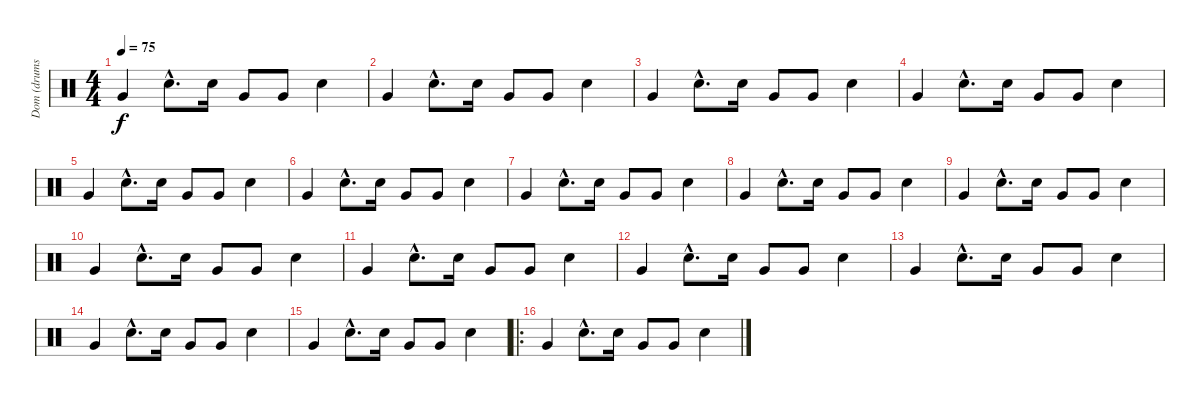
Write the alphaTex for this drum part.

\track ("Dom (drums)" "Dom (drums") {instrument percussion}
\staff {score}
\articulation defaults
\ts (4 4)
\tempo 75
\clef neutral
\ks c "Very Low Tom (hit)".4{dy f} "Snare (hit) 2"{hac}.8{d} "Snare (hit) 2".16 "Very Low Tom (hit)".8 "Very Low Tom (hit)".8 "Snare (hit) 2".4
|
"Very Low Tom (hit)".4 "Snare (hit) 2"{hac}.8{d} "Snare (hit) 2".16 "Very Low Tom (hit)".8 "Very Low Tom (hit)".8 "Snare (hit) 2".4 |
"Very Low Tom (hit)".4 "Snare (hit) 2"{hac}.8{d} "Snare (hit) 2".16 "Very Low Tom (hit)".8 "Very Low Tom (hit)".8 "Snare (hit) 2".4 |
"Very Low Tom (hit)".4 "Snare (hit) 2"{hac}.8{d} "Snare (hit) 2".16 "Very Low Tom (hit)".8 "Very Low Tom (hit)".8 "Snare (hit) 2".4 |
"Very Low Tom (hit)".4 "Snare (hit) 2"{hac}.8{d} "Snare (hit) 2".16 "Very Low Tom (hit)".8 "Very Low Tom (hit)".8 "Snare (hit) 2".4 |
"Very Low Tom (hit)".4 "Snare (hit) 2"{hac}.8{d} "Snare (hit) 2".16 "Very Low Tom (hit)".8 "Very Low Tom (hit)".8 "Snare (hit) 2".4 |
"Very Low Tom (hit)".4 "Snare (hit) 2"{hac}.8{d} "Snare (hit) 2".16 "Very Low Tom (hit)".8 "Very Low Tom (hit)".8 "Snare (hit) 2".4 |
"Very Low Tom (hit)".4 "Snare (hit) 2"{hac}.8{d} "Snare (hit) 2".16 "Very Low Tom (hit)".8 "Very Low Tom (hit)".8 "Snare (hit) 2".4 |
"Very Low Tom (hit)".4 "Snare (hit) 2"{hac}.8{d} "Snare (hit) 2".16 "Very Low Tom (hit)".8 "Very Low Tom (hit)".8 "Snare (hit) 2".4 |
"Very Low Tom (hit)".4 "Snare (hit) 2"{hac}.8{d} "Snare (hit) 2".16 "Very Low Tom (hit)".8 "Very Low Tom (hit)".8 "Snare (hit) 2".4 |
"Very Low Tom (hit)".4 "Snare (hit) 2"{hac}.8{d} "Snare (hit) 2".16 "Very Low Tom (hit)".8 "Very Low Tom (hit)".8 "Snare (hit) 2".4 |
"Very Low Tom (hit)".4 "Snare (hit) 2"{hac}.8{d} "Snare (hit) 2".16 "Very Low Tom (hit)".8 "Very Low Tom (hit)".8 "Snare (hit) 2".4 |
"Very Low Tom (hit)".4 "Snare (hit) 2"{hac}.8{d} "Snare (hit) 2".16 "Very Low Tom (hit)".8 "Very Low Tom (hit)".8 "Snare (hit) 2".4 |
"Very Low Tom (hit)".4 "Snare (hit) 2"{hac}.8{d} "Snare (hit) 2".16 "Very Low Tom (hit)".8 "Very Low Tom (hit)".8 "Snare (hit) 2".4 |
"Very Low Tom (hit)".4 "Snare (hit) 2"{hac}.8{d} "Snare (hit) 2".16 "Very Low Tom (hit)".8 "Very Low Tom (hit)".8 "Snare (hit) 2".4 |
\ro "Very Low Tom (hit)".4 "Snare (hit) 2"{hac}.8{d} "Snare (hit) 2".16 "Very Low Tom (hit)".8 "Very Low Tom (hit)".8 "Snare (hit) 2".4
